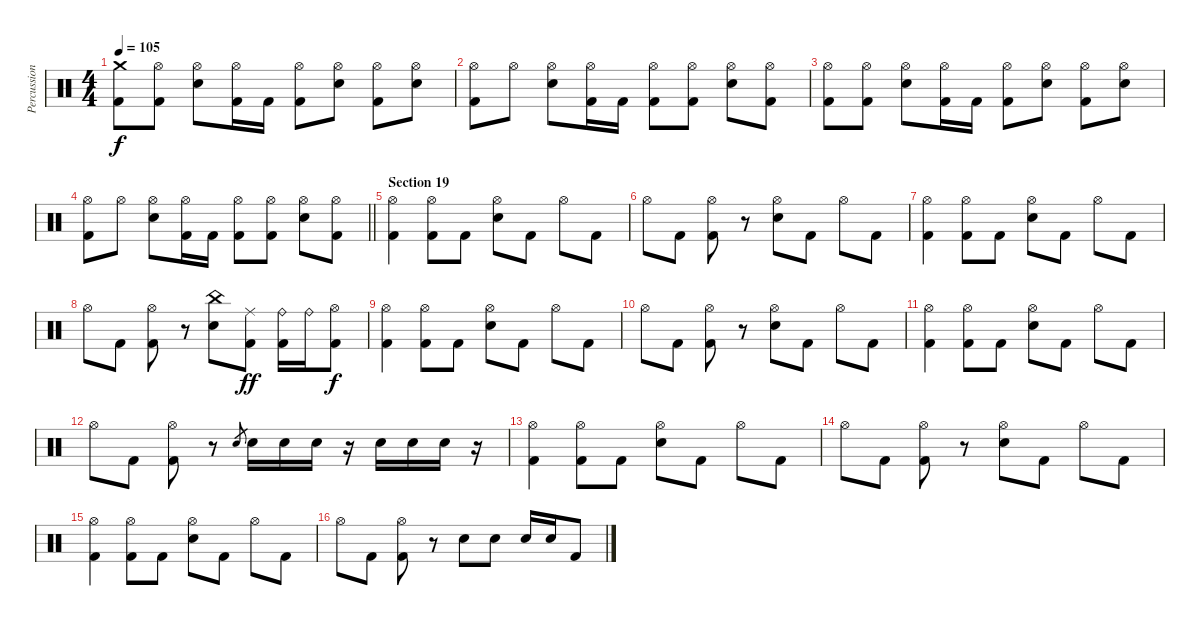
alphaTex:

\track ("Percussion" "Percussion") {instrument percussion}
\staff {score}
\articulation defaults
\ts (4 4)
\tempo 105
\clef neutral
\ks c
("Crash medium (hit)" "Kick (hit) 2").8{dy f} ("Hi-Hat (open)" "Kick (hit) 2").8 ("Hi-Hat (open)" "Electric Snare (hit)").8 ("Hi-Hat (open)" "Kick (hit) 2").16 "Kick (hit) 2".16 ("Hi-Hat (open)" "Kick (hit) 2").8 ("Hi-Hat (open)" "Electric Snare (hit)").8 ("Hi-Hat (open)" "Kick (hit) 2").8 ("Hi-Hat (open)" "Electric Snare (hit)").8 |
("Hi-Hat (open)" "Kick (hit) 2").8 "Hi-Hat (open)".8 ("Hi-Hat (open)" "Electric Snare (hit)").8 ("Hi-Hat (open)" "Kick (hit) 2").16 "Kick (hit) 2".16 ("Hi-Hat (open)" "Kick (hit) 2").8 ("Hi-Hat (open)" "Kick (hit) 2").8 ("Hi-Hat (open)" "Electric Snare (hit)").8 ("Hi-Hat (open)" "Kick (hit) 2").8 |
("Hi-Hat (open)" "Kick (hit) 2").8 ("Hi-Hat (open)" "Kick (hit) 2").8 ("Hi-Hat (open)" "Electric Snare (hit)").8 ("Hi-Hat (open)" "Kick (hit) 2").16 "Kick (hit) 2".16 ("Hi-Hat (open)" "Kick (hit) 2").8 ("Hi-Hat (open)" "Electric Snare (hit)").8 ("Hi-Hat (open)" "Kick (hit) 2").8 ("Hi-Hat (open)" "Electric Snare (hit)").8 |
\barLineRight lightlight
("Hi-Hat (open)" "Kick (hit) 2").8 "Hi-Hat (open)".8 ("Hi-Hat (open)" "Electric Snare (hit)").8 ("Hi-Hat (open)" "Kick (hit) 2").16 "Kick (hit) 2".16 ("Hi-Hat (open)" "Kick (hit) 2").8 ("Hi-Hat (open)" "Kick (hit) 2").8 ("Hi-Hat (open)" "Electric Snare (hit)").8 ("Hi-Hat (open)" "Kick (hit) 2").8 |
\section ("" "Section 19")
("Hi-Hat (open)" "Kick (hit) 2").4 ("Hi-Hat (open)" "Kick (hit) 2").8 "Kick (hit) 2".8 ("Hi-Hat (open)" "Electric Snare (hit)").8 "Kick (hit) 2".8 "Hi-Hat (open)".8 "Kick (hit) 2".8 |
"Hi-Hat (open)".8 "Kick (hit) 2".8 ("Hi-Hat (open)" "Kick (hit) 2").8 r.8 ("Hi-Hat (open)" "Electric Snare (hit)").8 "Kick (hit) 2".8 "Hi-Hat (open)".8 "Kick (hit) 2".8 |
("Hi-Hat (open)" "Kick (hit) 2").4 ("Hi-Hat (open)" "Kick (hit) 2").8 "Kick (hit) 2".8 ("Hi-Hat (open)" "Electric Snare (hit)").8 "Kick (hit) 2".8 "Hi-Hat (open)".8 "Kick (hit) 2".8 |
"Hi-Hat (open)".8 "Kick (hit) 2".8 ("Hi-Hat (open)" "Kick (hit) 2").8 r.8 ("China (hit)" "Electric Snare (hit)").8 ("Ride (middle)" "Kick (hit) 2").8{dy ff} ("Ride (bell)" "Kick (hit) 2").16 "Ride (bell)".16 ("Hi-Hat (open)" "Kick (hit) 2").8{dy f} |
("Hi-Hat (open)" "Kick (hit) 2").4 ("Hi-Hat (open)" "Kick (hit) 2").8 "Kick (hit) 2".8 ("Hi-Hat (open)" "Electric Snare (hit)").8 "Kick (hit) 2".8 "Hi-Hat (open)".8 "Kick (hit) 2".8 |
"Hi-Hat (open)".8 "Kick (hit) 2".8 ("Hi-Hat (open)" "Kick (hit) 2").8 r.8 ("Hi-Hat (open)" "Electric Snare (hit)").8 "Kick (hit) 2".8 "Hi-Hat (open)".8 "Kick (hit) 2".8 |
("Hi-Hat (open)" "Kick (hit) 2").4 ("Hi-Hat (open)" "Kick (hit) 2").8 "Kick (hit) 2".8 ("Hi-Hat (open)" "Electric Snare (hit)").8 "Kick (hit) 2".8 "Hi-Hat (open)".8 "Kick (hit) 2".8 |
"Hi-Hat (open)".8 "Kick (hit) 2".8 ("Hi-Hat (open)" "Kick (hit) 2").8 r.8 "Electric Snare (hit)".8{gr} "Electric Snare (hit)".16 "Electric Snare (hit)".16 "Electric Snare (hit)".16 r.16 "Electric Snare (hit)".16 "Electric Snare (hit)".16 "Electric Snare (hit)".16 r.16 |
("Hi-Hat (open)" "Kick (hit) 2").4 ("Hi-Hat (open)" "Kick (hit) 2").8 "Kick (hit) 2".8 ("Hi-Hat (open)" "Electric Snare (hit)").8 "Kick (hit) 2".8 "Hi-Hat (open)".8 "Kick (hit) 2".8 |
"Hi-Hat (open)".8 "Kick (hit) 2".8 ("Hi-Hat (open)" "Kick (hit) 2").8 r.8 ("Hi-Hat (open)" "Electric Snare (hit)").8 "Kick (hit) 2".8 "Hi-Hat (open)".8 "Kick (hit) 2".8 |
("Hi-Hat (open)" "Kick (hit) 2").4 ("Hi-Hat (open)" "Kick (hit) 2").8 "Kick (hit) 2".8 ("Hi-Hat (open)" "Electric Snare (hit)").8 "Kick (hit) 2".8 "Hi-Hat (open)".8 "Kick (hit) 2".8 |
"Hi-Hat (open)".8 "Kick (hit) 2".8 ("Hi-Hat (open)" "Kick (hit) 2").8 r.8 "Electric Snare (hit)".8 "Electric Snare (hit)".8 "Electric Snare (hit)".16 "Electric Snare (hit)".16 "Kick (hit) 2".8
